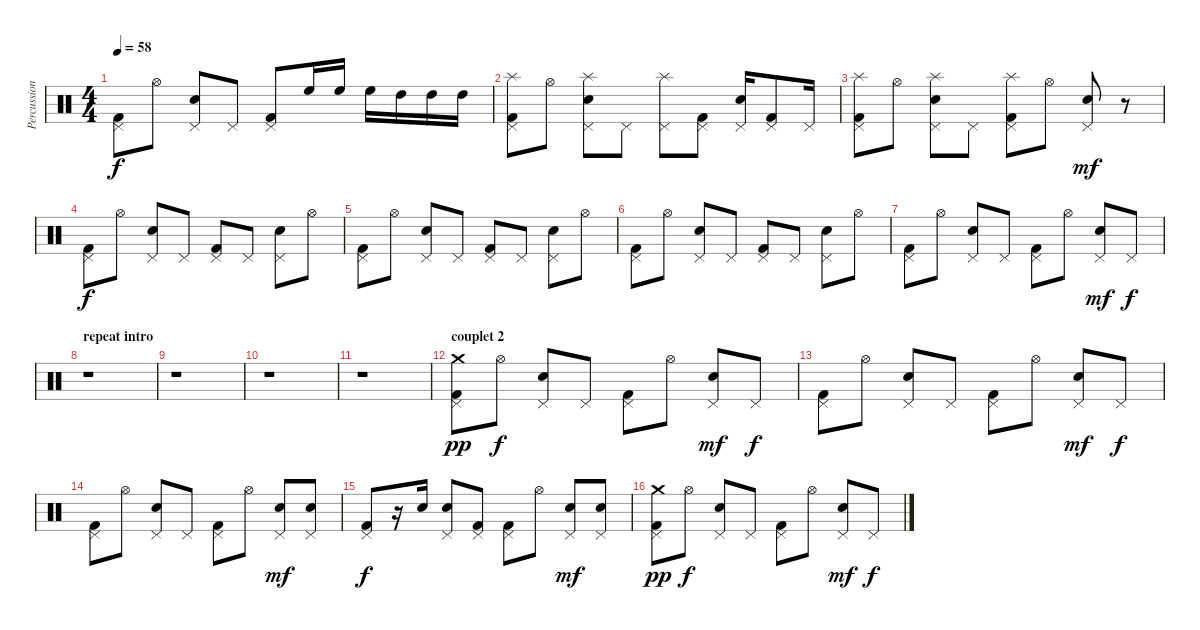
\track ("Percussions" "Percussion") {instrument percussion}
\staff {score}
\articulation defaults
\ts (4 4)
\tempo 58
\clef neutral
\ks c
("Pedal Hi-Hat (hit)" "Kick (hit) 2").8{dy f} "Hi-Hat (open)".8 ("Pedal Hi-Hat (hit)" "Electric Snare (hit)").8 "Pedal Hi-Hat (hit)".8 ("Pedal Hi-Hat (hit)" "Kick (hit) 2").8 "High Floor Tom (hit)".16 "High Floor Tom (hit)".16 "High Floor Tom (hit)".16 "High Tom (hit)".16 "High Tom (hit)".16 "High Tom (hit)".16 |
("Pedal Hi-Hat (hit)" "Splash (hit)" "Kick (hit) 2").8 "Hi-Hat (open)".8 ("Pedal Hi-Hat (hit)" "Splash (hit)" "Electric Snare (hit)").8 "Pedal Hi-Hat (hit)".8 ("Pedal Hi-Hat (hit)" "Splash (hit)").8 ("Pedal Hi-Hat (hit)" "Kick (hit) 2").8 ("Pedal Hi-Hat (hit)" "Electric Snare (hit)").16 ("Pedal Hi-Hat (hit)" "Kick (hit) 2").8 "Pedal Hi-Hat (hit)".16 |
("Pedal Hi-Hat (hit)" "Splash (hit)" "Kick (hit) 2").8 "Hi-Hat (open)".8 ("Pedal Hi-Hat (hit)" "Splash (hit)" "Electric Snare (hit)").8 "Pedal Hi-Hat (hit)".8 ("Pedal Hi-Hat (hit)" "Splash (hit)" "Kick (hit) 2").8 "Hi-Hat (open)".8 ("Pedal Hi-Hat (hit)" "Electric Snare (hit)").8{dy mf} r.8 |
("Pedal Hi-Hat (hit)" "Kick (hit) 2").8{dy f} "Hi-Hat (open)".8 ("Pedal Hi-Hat (hit)" "Electric Snare (hit)").8 "Pedal Hi-Hat (hit)".8 ("Pedal Hi-Hat (hit)" "Kick (hit) 2").8 "Pedal Hi-Hat (hit)".8 ("Pedal Hi-Hat (hit)" "Electric Snare (hit)").8 "Hi-Hat (open)".8 |
("Pedal Hi-Hat (hit)" "Kick (hit) 2").8 "Hi-Hat (open)".8 ("Pedal Hi-Hat (hit)" "Electric Snare (hit)").8 "Pedal Hi-Hat (hit)".8 ("Pedal Hi-Hat (hit)" "Kick (hit) 2").8 "Pedal Hi-Hat (hit)".8 ("Pedal Hi-Hat (hit)" "Electric Snare (hit)").8 "Hi-Hat (open)".8 |
("Pedal Hi-Hat (hit)" "Kick (hit) 2").8 "Hi-Hat (open)".8 ("Pedal Hi-Hat (hit)" "Electric Snare (hit)").8 "Pedal Hi-Hat (hit)".8 ("Pedal Hi-Hat (hit)" "Kick (hit) 2").8 "Pedal Hi-Hat (hit)".8 ("Pedal Hi-Hat (hit)" "Electric Snare (hit)").8 "Hi-Hat (open)".8 |
("Pedal Hi-Hat (hit)" "Kick (hit) 2").8 "Hi-Hat (open)".8 ("Pedal Hi-Hat (hit)" "Electric Snare (hit)").8 "Pedal Hi-Hat (hit)".8 ("Pedal Hi-Hat (hit)" "Kick (hit) 2").8 "Hi-Hat (open)".8 ("Pedal Hi-Hat (hit)" "Electric Snare (hit)").8{dy mf} "Pedal Hi-Hat (hit)".8{dy f} |
\section ("" "repeat intro")
r.1 |
r.1 |
r.1 |
r.1 |
\section ("" "couplet 2")
("Pedal Hi-Hat (hit)" "Kick (hit) 2" "Crash medium (hit)").8{dy pp} "Hi-Hat (open)".8{dy f} ("Pedal Hi-Hat (hit)" "Electric Snare (hit)").8 "Pedal Hi-Hat (hit)".8 ("Pedal Hi-Hat (hit)" "Kick (hit) 2").8 "Hi-Hat (open)".8 ("Pedal Hi-Hat (hit)" "Electric Snare (hit)").8{dy mf} "Pedal Hi-Hat (hit)".8{dy f} |
("Pedal Hi-Hat (hit)" "Kick (hit) 2").8 "Hi-Hat (open)".8 ("Pedal Hi-Hat (hit)" "Electric Snare (hit)").8 "Pedal Hi-Hat (hit)".8 ("Pedal Hi-Hat (hit)" "Kick (hit) 2").8 "Hi-Hat (open)".8 ("Pedal Hi-Hat (hit)" "Electric Snare (hit)").8{dy mf} "Pedal Hi-Hat (hit)".8{dy f} |
("Pedal Hi-Hat (hit)" "Kick (hit) 2").8 "Hi-Hat (open)".8 ("Pedal Hi-Hat (hit)" "Electric Snare (hit)").8 "Pedal Hi-Hat (hit)".8 ("Pedal Hi-Hat (hit)" "Kick (hit) 2").8 "Hi-Hat (open)".8 ("Pedal Hi-Hat (hit)" "Electric Snare (hit)").8{dy mf} ("Pedal Hi-Hat (hit)" "Electric Snare (hit)").8 |
("Pedal Hi-Hat (hit)" "Kick (hit) 2").8{dy f} r.16 "Electric Snare (hit)".16 ("Pedal Hi-Hat (hit)" "Electric Snare (hit)").8 ("Pedal Hi-Hat (hit)" "Kick (hit) 2").8 ("Pedal Hi-Hat (hit)" "Kick (hit) 2").8 "Hi-Hat (open)".8 ("Pedal Hi-Hat (hit)" "Electric Snare (hit)").8{dy mf} ("Pedal Hi-Hat (hit)" "Electric Snare (hit)").8 |
("Pedal Hi-Hat (hit)" "Kick (hit) 2" "Crash medium (hit)").8{dy pp} "Hi-Hat (open)".8{dy f} ("Pedal Hi-Hat (hit)" "Electric Snare (hit)").8 "Pedal Hi-Hat (hit)".8 ("Pedal Hi-Hat (hit)" "Kick (hit) 2").8 "Hi-Hat (open)".8 ("Pedal Hi-Hat (hit)" "Electric Snare (hit)").8{dy mf} "Pedal Hi-Hat (hit)".8{dy f}
